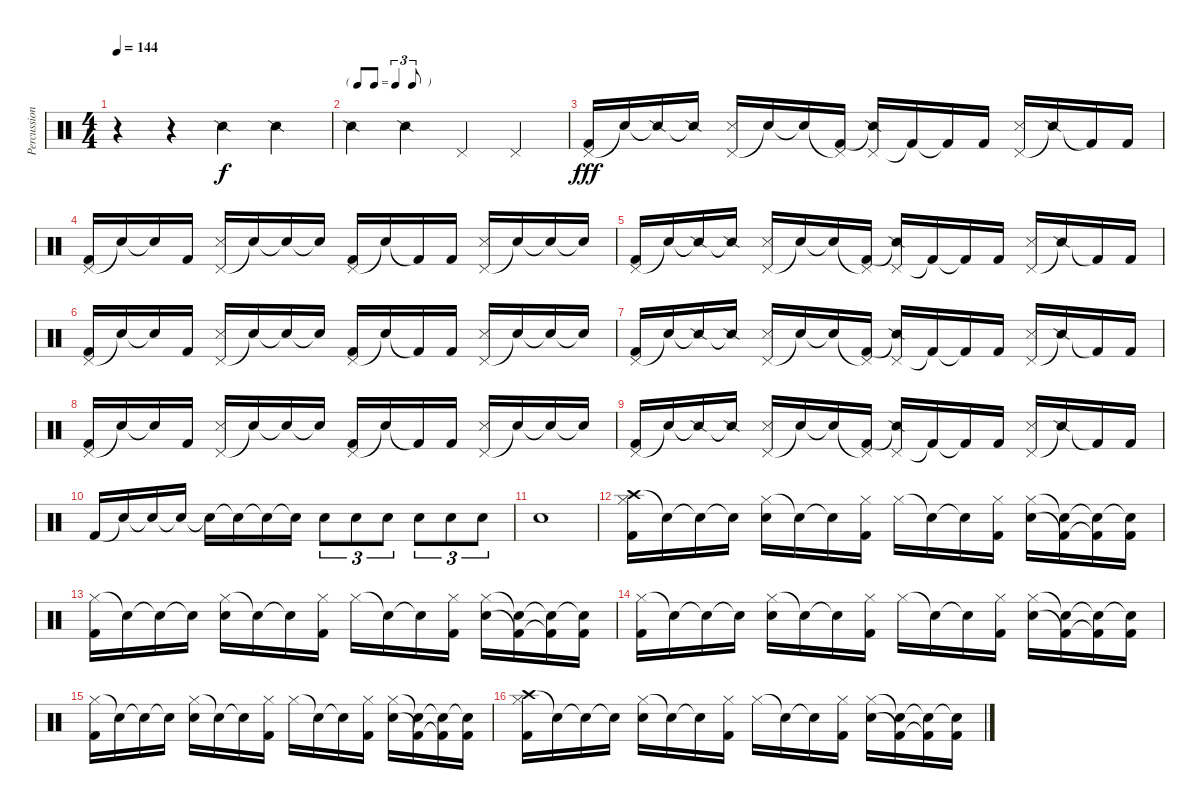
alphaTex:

\track ("Percussion" "Percussion") {instrument percussion}
\staff {score}
\articulation defaults
\ts (4 4)
\tempo 144
\clef neutral
\ks c
r.4{dy f} r.4 "Snare (side stick) 2".4 "Snare (side stick) 2".4 |
\tf triplet8th "Snare (side stick) 2".4 "Snare (side stick) 2".4 "Pedal Hi-Hat (hit)".4 "Pedal Hi-Hat (hit)".4
|
("Pedal Hi-Hat (hit)" "Kick (hit) 2").16{dy fff} "Snare (hit)"{t}.16 "Snare (side stick) 2"{t}.16 "Snare (side stick) 2"{t}.16 ("Pedal Hi-Hat (hit)" "Snare (side stick) 3").16 "Snare (hit)"{t}.16 "Snare (hit)"{t}.16 ("Pedal Hi-Hat (hit)"{t} "Kick (hit) 2").16 ("Pedal Hi-Hat (hit)" "Snare (side stick) 2"{t}).16 "Kick (hit) 2"{t}.16 "Kick (hit) 2"{t}.16 "Kick (hit) 2".16 ("Pedal Hi-Hat (hit)" "Snare (side stick) 3").16 "Snare (side stick) 2"{t}.16 "Kick (hit) 2"{t}.16 "Kick (hit) 2".16 |
("Pedal Hi-Hat (hit)" "Kick (hit) 2").16 "Snare (hit)"{t}.16 "Snare (hit)"{t}.16 "Kick (hit) 2".16 ("Pedal Hi-Hat (hit)" "Snare (side stick) 3").16 "Snare (hit)"{t}.16 "Snare (hit)"{t}.16 "Snare (hit)"{t}.16 ("Pedal Hi-Hat (hit)" "Kick (hit) 2").16 "Snare (hit)"{t}.16 "Kick (hit) 2"{t}.16 "Kick (hit) 2".16 ("Pedal Hi-Hat (hit)" "Snare (side stick) 3").16 "Snare (hit)"{t}.16 "Snare (hit)"{t}.16 "Snare (hit)"{t}.16 |
("Pedal Hi-Hat (hit)" "Kick (hit) 2").16 "Snare (hit)"{t}.16 "Snare (side stick) 2"{t}.16 "Snare (side stick) 2"{t}.16 ("Pedal Hi-Hat (hit)" "Snare (side stick) 3").16 "Snare (hit)"{t}.16 "Snare (hit)"{t}.16 ("Pedal Hi-Hat (hit)"{t} "Kick (hit) 2").16 ("Pedal Hi-Hat (hit)" "Snare (side stick) 2"{t}).16 "Kick (hit) 2"{t}.16 "Kick (hit) 2"{t}.16 "Kick (hit) 2".16 ("Pedal Hi-Hat (hit)" "Snare (side stick) 3").16 "Snare (side stick) 2"{t}.16 "Kick (hit) 2"{t}.16 "Kick (hit) 2".16 |
("Pedal Hi-Hat (hit)" "Kick (hit) 2").16 "Snare (hit)"{t}.16 "Snare (hit)"{t}.16 "Kick (hit) 2".16 ("Pedal Hi-Hat (hit)" "Snare (side stick) 3").16 "Snare (hit)"{t}.16 "Snare (hit)"{t}.16 "Snare (hit)"{t}.16 ("Pedal Hi-Hat (hit)" "Kick (hit) 2").16 "Snare (hit)"{t}.16 "Kick (hit) 2"{t}.16 "Kick (hit) 2".16 ("Pedal Hi-Hat (hit)" "Snare (side stick) 3").16 "Snare (hit)"{t}.16 "Snare (hit)"{t}.16 "Snare (hit)"{t}.16 |
("Pedal Hi-Hat (hit)" "Kick (hit) 2").16 "Snare (hit)"{t}.16 "Snare (side stick) 2"{t}.16 "Snare (side stick) 2"{t}.16 ("Pedal Hi-Hat (hit)" "Snare (side stick) 3").16 "Snare (hit)"{t}.16 "Snare (hit)"{t}.16 ("Pedal Hi-Hat (hit)"{t} "Kick (hit) 2").16 ("Pedal Hi-Hat (hit)" "Snare (side stick) 2"{t}).16 "Kick (hit) 2"{t}.16 "Kick (hit) 2"{t}.16 "Kick (hit) 2".16 ("Pedal Hi-Hat (hit)" "Snare (side stick) 3").16 "Snare (side stick) 2"{t}.16 "Kick (hit) 2"{t}.16 "Kick (hit) 2".16 |
("Pedal Hi-Hat (hit)" "Kick (hit) 2").16 "Snare (hit)"{t}.16 "Snare (hit)"{t}.16 "Kick (hit) 2".16 ("Pedal Hi-Hat (hit)" "Snare (side stick) 3").16 "Snare (hit)"{t}.16 "Snare (hit)"{t}.16 "Snare (hit)"{t}.16 ("Pedal Hi-Hat (hit)" "Kick (hit) 2").16 "Snare (hit)"{t}.16 "Kick (hit) 2"{t}.16 "Kick (hit) 2".16 ("Pedal Hi-Hat (hit)" "Snare (side stick) 3").16 "Snare (hit)"{t}.16 "Snare (hit)"{t}.16 "Snare (hit)"{t}.16 |
("Pedal Hi-Hat (hit)" "Kick (hit) 2").16 "Snare (hit)"{t}.16 "Snare (side stick) 2"{t}.16 "Snare (side stick) 2"{t}.16 ("Pedal Hi-Hat (hit)" "Snare (side stick) 3").16 "Snare (hit)"{t}.16 "Snare (hit)"{t}.16 ("Pedal Hi-Hat (hit)"{t} "Kick (hit) 2").16 ("Pedal Hi-Hat (hit)" "Snare (side stick) 2"{t}).16 "Kick (hit) 2"{t}.16 "Kick (hit) 2"{t}.16 "Kick (hit) 2".16 ("Pedal Hi-Hat (hit)" "Snare (side stick) 3").16 "Snare (side stick) 2"{t}.16 "Kick (hit) 2"{t}.16 "Kick (hit) 2".16 |
"Kick (hit) 2".16 "Snare (hit)"{t}.16 "Snare (hit)"{t}.16 "Snare (hit)"{t}.16 "Snare (hit)"{t}.16 "Snare (hit)"{t}.16 "Snare (hit)"{t}.16 "Snare (hit)"{t}.16 "Electric Snare (hit)".8{tu (3 2)} "Electric Snare (hit)".8{tu (3 2)} "Electric Snare (hit)".8{tu (3 2)} "Electric Snare (hit)".8{tu (3 2)} "Electric Snare (hit)".8{tu (3 2)} "Electric Snare (hit)".8{tu (3 2)} |
"Electric Snare (hit)".1 |
("Crash high (hit)" "Hi-Hat (closed)" "Kick (hit) 2").16 "Snare (hit)"{t}.16 "Snare (hit)"{t}.16 "Snare (hit)"{t}.16 ("Hi-Hat (closed)" "Electric Snare (hit)").16 "Snare (hit)"{t}.16 "Snare (hit)"{t}.16 ("Hi-Hat (closed)" "Kick (hit) 2").16 "Hi-Hat (closed)".16 "Snare (hit)"{t}.16 "Snare (hit)"{t}.16 ("Hi-Hat (closed)" "Kick (hit) 2").16 ("Hi-Hat (closed)" "Electric Snare (hit)").16 ("Snare (hit)"{t} "Kick (hit) 2"{t}).16 ("Snare (hit)"{t} "Kick (hit) 2"{t}).16 ("Snare (hit)"{t} "Kick (hit) 2").16 |
("Hi-Hat (closed)" "Kick (hit) 2").16 "Snare (hit)"{t}.16 "Snare (hit)"{t}.16 "Snare (hit)"{t}.16 ("Hi-Hat (closed)" "Electric Snare (hit)").16 "Snare (hit)"{t}.16 "Snare (hit)"{t}.16 ("Hi-Hat (closed)" "Kick (hit) 2").16 "Hi-Hat (closed)".16 "Snare (hit)"{t}.16 "Snare (hit)"{t}.16 ("Hi-Hat (closed)" "Kick (hit) 2").16 ("Hi-Hat (closed)" "Electric Snare (hit)").16 ("Snare (hit)"{t} "Kick (hit) 2"{t}).16 ("Snare (hit)"{t} "Kick (hit) 2"{t}).16 ("Snare (hit)"{t} "Kick (hit) 2").16 |
("Hi-Hat (closed)" "Kick (hit) 2").16 "Snare (hit)"{t}.16 "Snare (hit)"{t}.16 "Snare (hit)"{t}.16 ("Hi-Hat (closed)" "Electric Snare (hit)").16 "Snare (hit)"{t}.16 "Snare (hit)"{t}.16 ("Hi-Hat (closed)" "Kick (hit) 2").16 "Hi-Hat (closed)".16 "Snare (hit)"{t}.16 "Snare (hit)"{t}.16 ("Hi-Hat (closed)" "Kick (hit) 2").16 ("Hi-Hat (closed)" "Electric Snare (hit)").16 ("Snare (hit)"{t} "Kick (hit) 2"{t}).16 ("Snare (hit)"{t} "Kick (hit) 2"{t}).16 ("Snare (hit)"{t} "Kick (hit) 2").16 |
("Hi-Hat (closed)" "Kick (hit) 2").16 "Snare (hit)"{t}.16 "Snare (hit)"{t}.16 "Snare (hit)"{t}.16 ("Hi-Hat (closed)" "Electric Snare (hit)").16 "Snare (hit)"{t}.16 "Snare (hit)"{t}.16 ("Hi-Hat (closed)" "Kick (hit) 2").16 "Hi-Hat (closed)".16 "Snare (hit)"{t}.16 "Snare (hit)"{t}.16 ("Hi-Hat (closed)" "Kick (hit) 2").16 ("Hi-Hat (closed)" "Electric Snare (hit)").16 ("Snare (hit)"{t} "Kick (hit) 2"{t}).16 ("Snare (hit)"{t} "Kick (hit) 2"{t}).16 ("Snare (hit)"{t} "Kick (hit) 2").16 |
("Crash high (hit)" "Hi-Hat (closed)" "Kick (hit) 2").16 "Snare (hit)"{t}.16 "Snare (hit)"{t}.16 "Snare (hit)"{t}.16 ("Hi-Hat (closed)" "Electric Snare (hit)").16 "Snare (hit)"{t}.16 "Snare (hit)"{t}.16 ("Hi-Hat (closed)" "Kick (hit) 2").16 "Hi-Hat (closed)".16 "Snare (hit)"{t}.16 "Snare (hit)"{t}.16 ("Hi-Hat (closed)" "Kick (hit) 2").16 ("Hi-Hat (closed)" "Electric Snare (hit)").16 ("Snare (hit)"{t} "Kick (hit) 2"{t}).16 ("Snare (hit)"{t} "Kick (hit) 2"{t}).16 ("Snare (hit)"{t} "Kick (hit) 2").16
